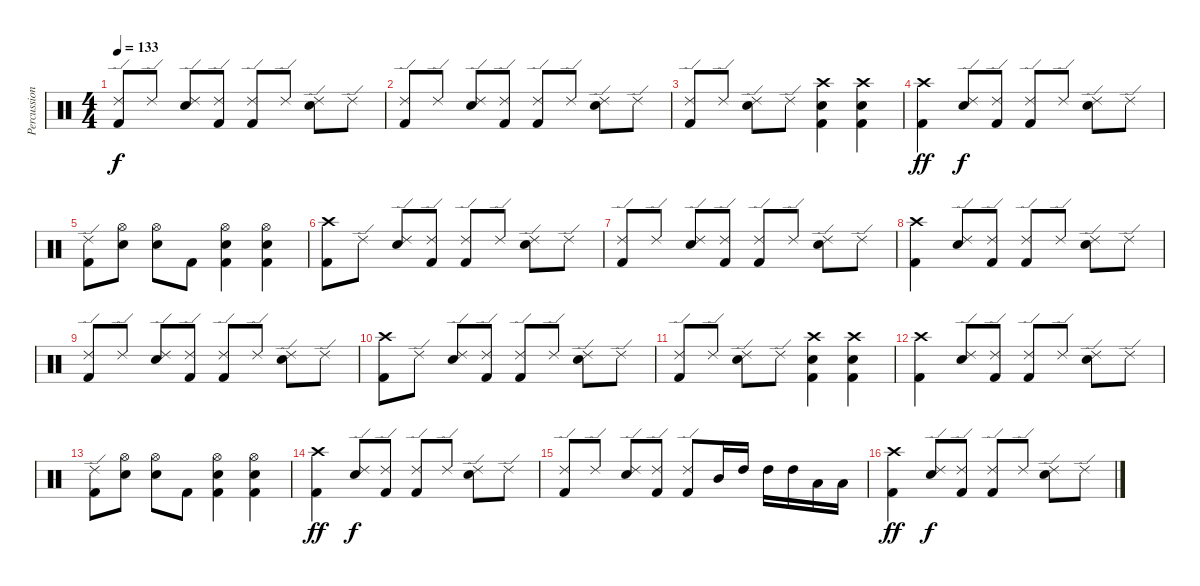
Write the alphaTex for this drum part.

\track ("Percussion" "Percussion") {instrument percussion}
\staff {score}
\articulation defaults
\ts (4 4)
\tempo 133
\clef neutral
\ks c
("Ride (edge) 2" "Kick (hit) 2").8{dy f} "Ride (edge) 2".8 ("Ride (edge) 2" "Snare (hit) 2").8 ("Ride (edge) 2" "Kick (hit) 2").8 ("Ride (edge) 2" "Kick (hit) 2").8 "Ride (edge) 2".8 ("Ride (edge) 2" "Snare (hit) 2").8 "Ride (edge) 2".8 |
("Ride (edge) 2" "Kick (hit) 2").8 "Ride (edge) 2".8 ("Ride (edge) 2" "Snare (hit) 2").8 ("Ride (edge) 2" "Kick (hit) 2").8 ("Ride (edge) 2" "Kick (hit) 2").8 "Ride (edge) 2".8 ("Ride (edge) 2" "Snare (hit) 2").8 "Ride (edge) 2".8 |
("Ride (edge) 2" "Kick (hit) 2").8 "Ride (edge) 2".8 ("Ride (edge) 2" "Snare (hit) 2").8 "Ride (edge) 2".8 ("Crash high (hit)" "Snare (hit) 2" "Kick (hit) 2").4 ("Crash high (hit)" "Snare (hit) 2" "Kick (hit) 2").4 |
("Crash high (hit)" "Kick (hit) 2").4{dy ff} ("Ride (edge) 2" "Snare (hit) 2").8{dy f} ("Ride (edge) 2" "Kick (hit) 2").8 ("Ride (edge) 2" "Kick (hit) 2").8 "Ride (edge) 2".8 ("Ride (edge) 2" "Snare (hit) 2").8 "Ride (edge) 2".8 |
("Ride (edge) 2" "Kick (hit) 2").8 ("Hi-Hat (open)" "Snare (hit) 2").8 ("Hi-Hat (open)" "Snare (hit) 2").8 "Kick (hit) 2".8 ("Hi-Hat (open)" "Snare (hit) 2" "Kick (hit) 2").4 ("Hi-Hat (open)" "Snare (hit) 2" "Kick (hit) 2").4 |
("Crash high (hit)" "Kick (hit) 2").8 "Ride (edge) 2".8 ("Ride (edge) 2" "Snare (hit) 2").8 ("Ride (edge) 2" "Kick (hit) 2").8 ("Ride (edge) 2" "Kick (hit) 2").8 "Ride (edge) 2".8 ("Ride (edge) 2" "Snare (hit) 2").8 "Ride (edge) 2".8 |
("Ride (edge) 2" "Kick (hit) 2").8 "Ride (edge) 2".8 ("Ride (edge) 2" "Snare (hit) 2").8 ("Ride (edge) 2" "Kick (hit) 2").8 ("Ride (edge) 2" "Kick (hit) 2").8 "Ride (edge) 2".8 ("Ride (edge) 2" "Snare (hit) 2").8 "Ride (edge) 2".8 |
("Crash high (hit)" "Kick (hit) 2").4 ("Ride (edge) 2" "Snare (hit) 2").8 ("Ride (edge) 2" "Kick (hit) 2").8 ("Ride (edge) 2" "Kick (hit) 2").8 "Ride (edge) 2".8 ("Ride (edge) 2" "Snare (hit) 2").8 "Ride (edge) 2".8 |
("Ride (edge) 2" "Kick (hit) 2").8 "Ride (edge) 2".8 ("Ride (edge) 2" "Snare (hit) 2").8 ("Ride (edge) 2" "Kick (hit) 2").8 ("Ride (edge) 2" "Kick (hit) 2").8 "Ride (edge) 2".8 ("Ride (edge) 2" "Snare (hit) 2").8 "Ride (edge) 2".8 |
("Crash high (hit)" "Kick (hit) 2").8 "Ride (edge) 2".8 ("Ride (edge) 2" "Snare (hit) 2").8 ("Ride (edge) 2" "Kick (hit) 2").8 ("Ride (edge) 2" "Kick (hit) 2").8 "Ride (edge) 2".8 ("Ride (edge) 2" "Snare (hit) 2").8 "Ride (edge) 2".8 |
("Ride (edge) 2" "Kick (hit) 2").8 "Ride (edge) 2".8 ("Ride (edge) 2" "Snare (hit) 2").8 "Ride (edge) 2".8 ("Crash high (hit)" "Snare (hit) 2" "Kick (hit) 2").4 ("Crash high (hit)" "Snare (hit) 2" "Kick (hit) 2").4 |
("Crash high (hit)" "Kick (hit) 2").4 ("Ride (edge) 2" "Snare (hit) 2").8 ("Ride (edge) 2" "Kick (hit) 2").8 ("Ride (edge) 2" "Kick (hit) 2").8 "Ride (edge) 2".8 ("Ride (edge) 2" "Snare (hit) 2").8 "Ride (edge) 2".8 |
("Ride (edge) 2" "Kick (hit) 2").8 ("Hi-Hat (open)" "Snare (hit) 2").8 ("Hi-Hat (open)" "Snare (hit) 2").8 "Kick (hit) 2".8 ("Hi-Hat (open)" "Snare (hit) 2" "Kick (hit) 2").4 ("Hi-Hat (open)" "Snare (hit) 2" "Kick (hit) 2").4 |
("Crash high (hit)" "Kick (hit) 2").4{dy ff} ("Ride (edge) 2" "Snare (hit) 2").8{dy f} ("Ride (edge) 2" "Kick (hit) 2").8 ("Ride (edge) 2" "Kick (hit) 2").8 "Ride (edge) 2".8 ("Ride (edge) 2" "Snare (hit) 2").8 "Ride (edge) 2".8 |
("Ride (edge) 2" "Kick (hit) 2").8 "Ride (edge) 2".8 ("Ride (edge) 2" "Snare (hit) 2").8 ("Ride (edge) 2" "Kick (hit) 2").8 ("Ride (edge) 2" "Kick (hit) 2").8 "Mid Tom (hit)".16 "High Tom (hit)".16 "High Tom (hit)".16 "High Tom (hit)".16 "Low Tom (hit)".16 "Low Tom (hit)".16 |
("Crash high (hit)" "Kick (hit) 2").4{dy ff} ("Ride (edge) 2" "Snare (hit) 2").8{dy f} ("Ride (edge) 2" "Kick (hit) 2").8 ("Ride (edge) 2" "Kick (hit) 2").8 "Ride (edge) 2".8 ("Ride (edge) 2" "Snare (hit) 2").8 "Ride (edge) 2".8
